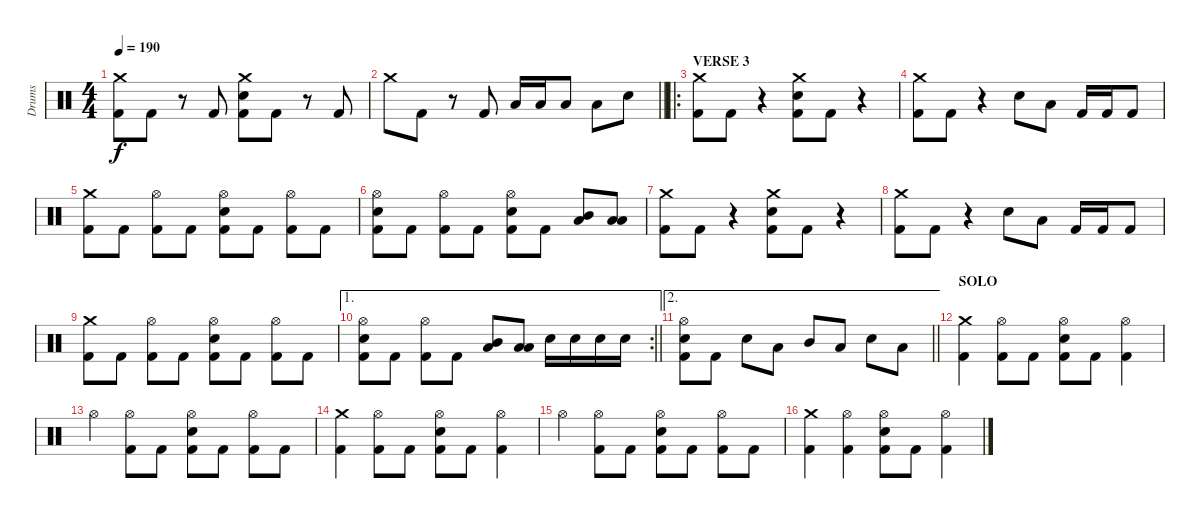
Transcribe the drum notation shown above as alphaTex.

\track ("Drums" "Drums") {instrument percussion}
\staff {score}
\articulation defaults
\ts (4 4)
\tempo 190
\clef neutral
\ks c
("Crash medium (hit)" "Kick (hit) 2").8{dy f} "Kick (hit) 2".8 r.8 "Kick (hit) 2".8 ("Crash medium (hit)" "Electric Snare (hit)" "Kick (hit) 2").8 "Kick (hit) 2".8 r.8 "Kick (hit) 2".8 |
\barLineRight lightlight "Crash medium (hit)".8 "Kick (hit) 2".8
r.8 "Kick (hit) 2".8 "Low Tom (hit)".16 "Low Tom (hit)".16 "Low Tom (hit)".8 "Low Floor Tom (hit)".8 "Electric Snare (hit)".8 |
\ro
\section ("" "VERSE 3")
("Crash medium (hit)" "Kick (hit) 2").8 "Kick (hit) 2".8 r.4 ("Crash medium (hit)" "Electric Snare (hit)" "Kick (hit) 2").8 "Kick (hit) 2".8 r.4 |
("Crash medium (hit)" "Kick (hit) 2").8 "Kick (hit) 2".8 r.4 "Electric Snare (hit)".8 "Low Floor Tom (hit)".8 "Kick (hit) 2".16 "Kick (hit) 2".16 "Kick (hit) 2".8 |
("Crash medium (hit)" "Kick (hit) 2").8 "Kick (hit) 2".8 ("Hi-Hat (open)" "Kick (hit) 2").8 "Kick (hit) 2".8 ("Hi-Hat (open)" "Electric Snare (hit)" "Kick (hit) 2").8 "Kick (hit) 2".8 ("Hi-Hat (open)" "Kick (hit) 2").8 "Kick (hit) 2".8 |
("Hi-Hat (open)" "Electric Snare (hit)" "Kick (hit) 2").8 "Kick (hit) 2".8 ("Hi-Hat (open)" "Kick (hit) 2").8 "Kick (hit) 2".8 ("Hi-Hat (open)" "Electric Snare (hit)" "Kick (hit) 2").8 "Kick (hit) 2".8 ("Mid Tom (hit)" "Low Tom (hit)").8 ("Low Tom (hit)" "Low Floor Tom (hit)").8 |
("Crash medium (hit)" "Kick (hit) 2").8 "Kick (hit) 2".8 r.4 ("Crash medium (hit)" "Electric Snare (hit)" "Kick (hit) 2").8 "Kick (hit) 2".8 r.4 |
("Crash medium (hit)" "Kick (hit) 2").8 "Kick (hit) 2".8 r.4 "Electric Snare (hit)".8 "Low Floor Tom (hit)".8 "Kick (hit) 2".16 "Kick (hit) 2".16 "Kick (hit) 2".8 |
("Crash medium (hit)" "Kick (hit) 2").8 "Kick (hit) 2".8 ("Hi-Hat (open)" "Kick (hit) 2").8 "Kick (hit) 2".8 ("Hi-Hat (open)" "Electric Snare (hit)" "Kick (hit) 2").8 "Kick (hit) 2".8 ("Hi-Hat (open)" "Kick (hit) 2").8 "Kick (hit) 2".8 |
\ae 1
\rc 2
\barLineRight lightlight
("Hi-Hat (open)" "Electric Snare (hit)" "Kick (hit) 2").8 "Kick (hit) 2".8 ("Hi-Hat (open)" "Kick (hit) 2").8 "Kick (hit) 2".8 ("Mid Tom (hit)" "Low Tom (hit)").8 ("Low Tom (hit)" "Low Floor Tom (hit)").8 "Electric Snare (hit)".16 "Electric Snare (hit)".16 "Electric Snare (hit)".16 "Electric Snare (hit)".16 |
\ae 2
\barLineRight lightlight
("Hi-Hat (open)" "Electric Snare (hit)" "Kick (hit) 2").8 "Kick (hit) 2".8 "Electric Snare (hit)".8 "Low Floor Tom (hit)".8 "Mid Tom (hit)".8 "Low Tom (hit)".8 "Electric Snare (hit)".8 "Low Floor Tom (hit)".8 |
\section ("" "SOLO")
("Crash medium (hit)" "Kick (hit) 2").4 ("Hi-Hat (open)" "Kick (hit) 2").8 "Kick (hit) 2".8 ("Hi-Hat (open)" "Electric Snare (hit)" "Kick (hit) 2").8 "Kick (hit) 2".8 ("Hi-Hat (open)" "Kick (hit) 2").4 |
"Hi-Hat (open)".4 ("Hi-Hat (open)" "Kick (hit) 2").8 "Kick (hit) 2".8 ("Hi-Hat (open)" "Electric Snare (hit)" "Kick (hit) 2").8 "Kick (hit) 2".8 ("Hi-Hat (open)" "Kick (hit) 2").8 "Kick (hit) 2".8 |
("Crash medium (hit)" "Kick (hit) 2").4 ("Hi-Hat (open)" "Kick (hit) 2").8 "Kick (hit) 2".8 ("Hi-Hat (open)" "Electric Snare (hit)" "Kick (hit) 2").8 "Kick (hit) 2".8 ("Hi-Hat (open)" "Kick (hit) 2").4 |
"Hi-Hat (open)".4 ("Hi-Hat (open)" "Kick (hit) 2").8 "Kick (hit) 2".8 ("Hi-Hat (open)" "Electric Snare (hit)" "Kick (hit) 2").8 "Kick (hit) 2".8 ("Hi-Hat (open)" "Kick (hit) 2").8 "Kick (hit) 2".8 |
("Crash medium (hit)" "Kick (hit) 2").4 ("Hi-Hat (open)" "Kick (hit) 2").4 ("Hi-Hat (open)" "Electric Snare (hit)" "Kick (hit) 2").8 "Kick (hit) 2".8 ("Hi-Hat (open)" "Kick (hit) 2").4
